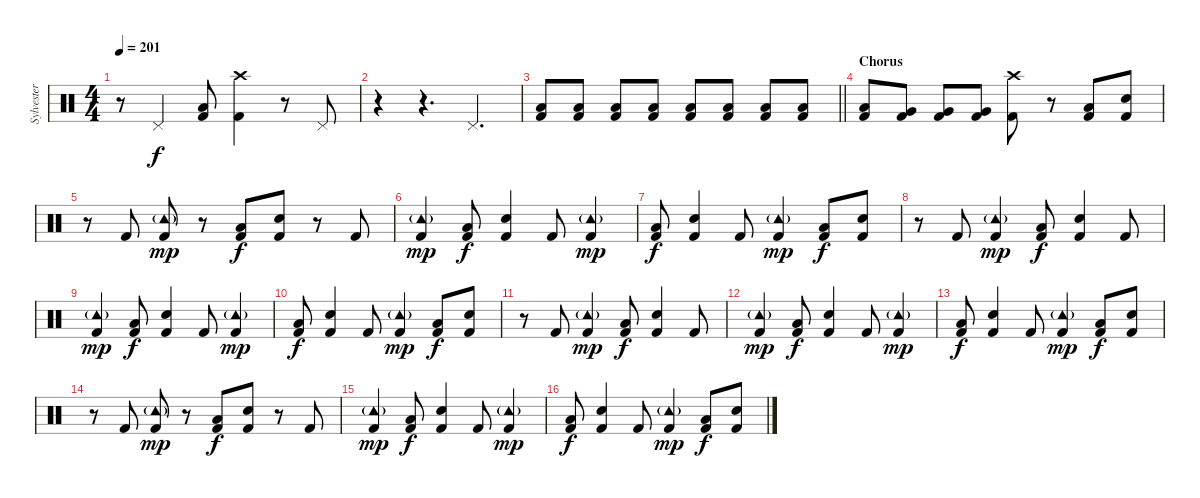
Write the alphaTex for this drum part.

\track ("Sylvester Schlegel" "Sylvester ") {instrument percussion}
\staff {score}
\articulation defaults
\ts (4 4)
\tempo 201
\clef neutral
\ks c
r.8{dy f} "Pedal Hi-Hat (hit)".4 ("Low Floor Tom (hit)" "Kick (hit) 2").8 ("Crash high (hit)" "Kick (hit) 2").4 r.8 "Pedal Hi-Hat (hit)".8 |
r.4 r.4{d} "Pedal Hi-Hat (hit)".4{d} |
\barLineRight lightlight
("Low Tom (hit)" "Kick (hit) 2").8 ("Low Tom (hit)" "Kick (hit) 2").8 ("Low Tom (hit)" "Kick (hit) 2").8 ("Low Tom (hit)" "Kick (hit) 2").8 ("Low Tom (hit)" "Kick (hit) 2").8 ("Low Tom (hit)" "Kick (hit) 2").8 ("Low Tom (hit)" "Kick (hit) 2").8 ("Low Tom (hit)" "Kick (hit) 2").8 |
\section ("" "Chorus")
("Low Tom (hit)" "Kick (hit) 2").8 ("Very Low Tom (hit)" "Kick (hit) 2").8 ("Very Low Tom (hit)" "Kick (hit) 2").8 ("Very Low Tom (hit)" "Kick (hit) 2").8 ("Crash high (hit)" "Kick (hit) 2").8 r.8 ("Low Floor Tom (hit)" "Kick (hit) 2").8 ("Snare (hit) 2" "Kick (hit) 2").8 |
r.8 "Kick (hit) 2".8 ("Tambourine (hit)"{g} "Kick (hit) 2").8{dy mp} r.8 ("Low Floor Tom (hit)" "Kick (hit) 2").8{dy f} ("Snare (hit) 2" "Kick (hit) 2").8 r.8 "Kick (hit) 2".8 |
("Tambourine (hit)"{g} "Kick (hit) 2").4{dy mp} ("Low Floor Tom (hit)" "Kick (hit) 2").8{dy f} ("Snare (hit) 2" "Kick (hit) 2").4 "Kick (hit) 2".8 ("Tambourine (hit)"{g} "Kick (hit) 2").4{dy mp} |
("Low Floor Tom (hit)" "Kick (hit) 2").8{dy f} ("Snare (hit) 2" "Kick (hit) 2").4 "Kick (hit) 2".8 ("Tambourine (hit)"{g} "Kick (hit) 2").4{dy mp} ("Low Floor Tom (hit)" "Kick (hit) 2").8{dy f} ("Snare (hit) 2" "Kick (hit) 2").8 |
r.8 "Kick (hit) 2".8 ("Tambourine (hit)"{g} "Kick (hit) 2").4{dy mp} ("Low Floor Tom (hit)" "Kick (hit) 2").8{dy f} ("Snare (hit) 2" "Kick (hit) 2").4 "Kick (hit) 2".8 |
("Tambourine (hit)"{g} "Kick (hit) 2").4{dy mp} ("Low Floor Tom (hit)" "Kick (hit) 2").8{dy f} ("Snare (hit) 2" "Kick (hit) 2").4 "Kick (hit) 2".8 ("Tambourine (hit)"{g} "Kick (hit) 2").4{dy mp} |
("Low Floor Tom (hit)" "Kick (hit) 2").8{dy f} ("Snare (hit) 2" "Kick (hit) 2").4 "Kick (hit) 2".8 ("Tambourine (hit)"{g} "Kick (hit) 2").4{dy mp} ("Low Floor Tom (hit)" "Kick (hit) 2").8{dy f} ("Snare (hit) 2" "Kick (hit) 2").8 |
r.8 "Kick (hit) 2".8 ("Tambourine (hit)"{g} "Kick (hit) 2").4{dy mp} ("Low Floor Tom (hit)" "Kick (hit) 2").8{dy f} ("Snare (hit) 2" "Kick (hit) 2").4 "Kick (hit) 2".8 |
("Tambourine (hit)"{g} "Kick (hit) 2").4{dy mp} ("Low Floor Tom (hit)" "Kick (hit) 2").8{dy f} ("Snare (hit) 2" "Kick (hit) 2").4 "Kick (hit) 2".8 ("Tambourine (hit)"{g} "Kick (hit) 2").4{dy mp} |
("Low Floor Tom (hit)" "Kick (hit) 2").8{dy f} ("Snare (hit) 2" "Kick (hit) 2").4 "Kick (hit) 2".8 ("Tambourine (hit)"{g} "Kick (hit) 2").4{dy mp} ("Low Floor Tom (hit)" "Kick (hit) 2").8{dy f} ("Snare (hit) 2" "Kick (hit) 2").8 |
r.8 "Kick (hit) 2".8 ("Tambourine (hit)"{g} "Kick (hit) 2").8{dy mp} r.8 ("Low Floor Tom (hit)" "Kick (hit) 2").8{dy f} ("Snare (hit) 2" "Kick (hit) 2").8 r.8 "Kick (hit) 2".8 |
("Tambourine (hit)"{g} "Kick (hit) 2").4{dy mp} ("Low Floor Tom (hit)" "Kick (hit) 2").8{dy f} ("Snare (hit) 2" "Kick (hit) 2").4 "Kick (hit) 2".8 ("Tambourine (hit)"{g} "Kick (hit) 2").4{dy mp} |
("Low Floor Tom (hit)" "Kick (hit) 2").8{dy f} ("Snare (hit) 2" "Kick (hit) 2").4 "Kick (hit) 2".8 ("Tambourine (hit)"{g} "Kick (hit) 2").4{dy mp} ("Low Floor Tom (hit)" "Kick (hit) 2").8{dy f} ("Snare (hit) 2" "Kick (hit) 2").8
